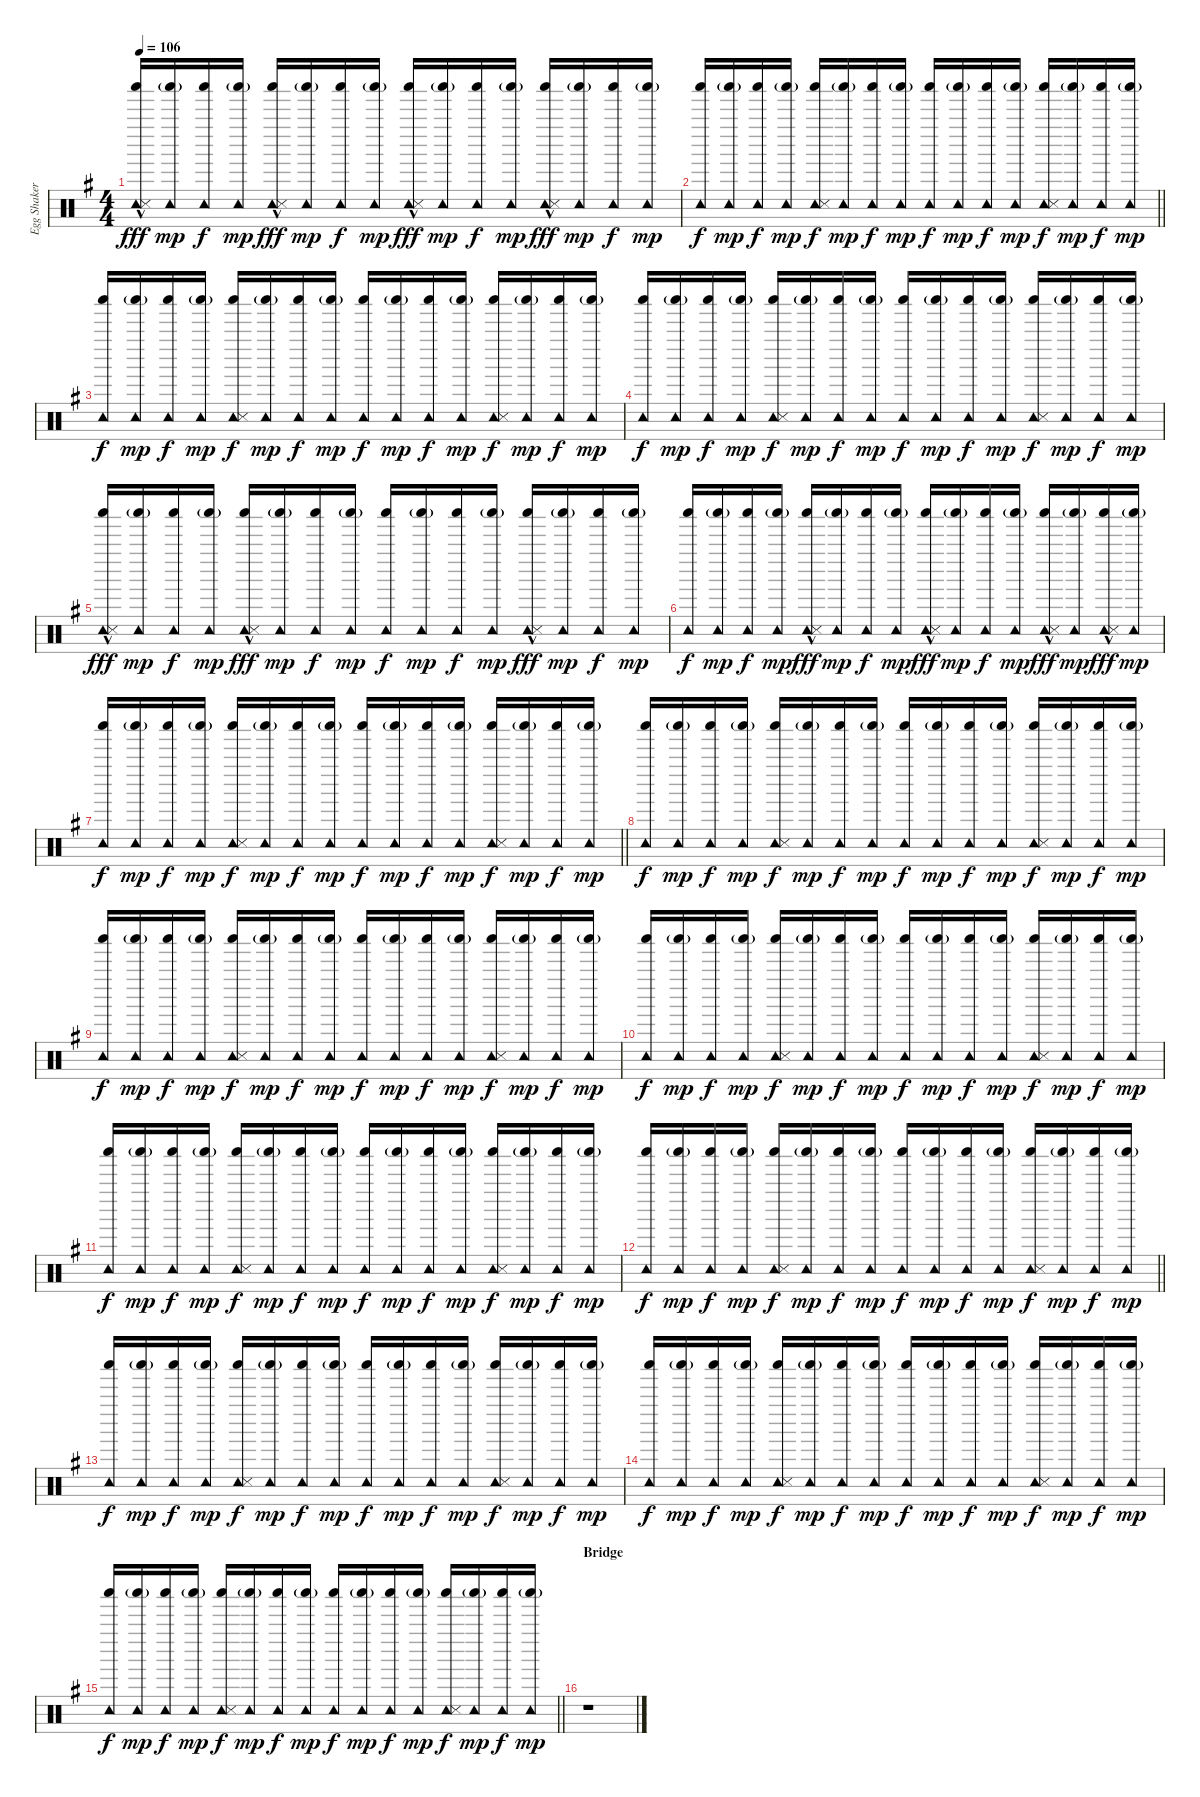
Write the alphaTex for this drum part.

\track ("Egg Shaker and Tambourine" "Egg Shaker") {instrument percussion}
\staff {score}
\articulation defaults
\ts (4 4)
\tempo 106
\clef neutral
\ks eminor
("Tambourine (hit)" "Shaker (hit)" "Snare (side stick) 3"{hac}).16{dy fff beam Up} ("Tambourine (hit)" "Shaker (hit)"{g}).16{dy mp beam Up} ("Tambourine (hit)" "Shaker (hit)").16{dy f beam Up} ("Tambourine (hit)" "Shaker (hit)"{g}).16{dy mp beam Up} ("Tambourine (hit)" "Shaker (hit)" "Snare (side stick) 3"{hac}).16{dy fff beam Up} ("Tambourine (hit)" "Shaker (hit)"{g}).16{dy mp beam Up} ("Tambourine (hit)" "Shaker (hit)").16{dy f beam Up} ("Tambourine (hit)" "Shaker (hit)"{g}).16{dy mp beam Up} ("Tambourine (hit)" "Shaker (hit)" "Snare (side stick) 3"{hac}).16{dy fff beam Up} ("Tambourine (hit)" "Shaker (hit)"{g}).16{dy mp beam Up} ("Tambourine (hit)" "Shaker (hit)").16{dy f beam Up} ("Tambourine (hit)" "Shaker (hit)"{g}).16{dy mp beam Up} ("Tambourine (hit)" "Shaker (hit)" "Snare (side stick) 3"{hac}).16{dy fff beam Up} ("Tambourine (hit)" "Shaker (hit)"{g}).16{dy mp beam Up} ("Tambourine (hit)" "Shaker (hit)").16{dy f beam Up} ("Tambourine (hit)" "Shaker (hit)"{g}).16{dy mp beam Up} |
\barLineRight lightlight
("Tambourine (hit)" "Shaker (hit)").16{dy f beam Up} ("Tambourine (hit)" "Shaker (hit)"{g}).16{dy mp beam Up} ("Tambourine (hit)" "Shaker (hit)").16{dy f beam Up} ("Tambourine (hit)" "Shaker (hit)"{g}).16{dy mp beam Up} ("Tambourine (hit)" "Shaker (hit)" "Snare (side stick) 3").16{dy f beam Up} ("Tambourine (hit)" "Shaker (hit)"{g}).16{dy mp beam Up} ("Tambourine (hit)" "Shaker (hit)").16{dy f beam Up} ("Tambourine (hit)" "Shaker (hit)"{g}).16{dy mp beam Up} ("Tambourine (hit)" "Shaker (hit)").16{dy f beam Up} ("Tambourine (hit)" "Shaker (hit)"{g}).16{dy mp beam Up} ("Tambourine (hit)" "Shaker (hit)").16{dy f beam Up} ("Tambourine (hit)" "Shaker (hit)"{g}).16{dy mp beam Up} ("Tambourine (hit)" "Shaker (hit)" "Snare (side stick) 3").16{dy f beam Up} ("Tambourine (hit)" "Shaker (hit)"{g}).16{dy mp beam Up} ("Tambourine (hit)" "Shaker (hit)").16{dy f beam Up} ("Tambourine (hit)" "Shaker (hit)"{g}).16{dy mp beam Up} |
("Tambourine (hit)" "Shaker (hit)").16{dy f beam Up} ("Tambourine (hit)" "Shaker (hit)"{g}).16{dy mp beam Up} ("Tambourine (hit)" "Shaker (hit)").16{dy f beam Up} ("Tambourine (hit)" "Shaker (hit)"{g}).16{dy mp beam Up} ("Tambourine (hit)" "Shaker (hit)" "Snare (side stick) 3").16{dy f beam Up} ("Tambourine (hit)" "Shaker (hit)"{g}).16{dy mp beam Up} ("Tambourine (hit)" "Shaker (hit)").16{dy f beam Up} ("Tambourine (hit)" "Shaker (hit)"{g}).16{dy mp beam Up} ("Tambourine (hit)" "Shaker (hit)").16{dy f beam Up} ("Tambourine (hit)" "Shaker (hit)"{g}).16{dy mp beam Up} ("Tambourine (hit)" "Shaker (hit)").16{dy f beam Up} ("Tambourine (hit)" "Shaker (hit)"{g}).16{dy mp beam Up} ("Tambourine (hit)" "Shaker (hit)" "Snare (side stick) 3").16{dy f beam Up} ("Tambourine (hit)" "Shaker (hit)"{g}).16{dy mp beam Up} ("Tambourine (hit)" "Shaker (hit)").16{dy f beam Up} ("Tambourine (hit)" "Shaker (hit)"{g}).16{dy mp beam Up} |
("Tambourine (hit)" "Shaker (hit)").16{dy f beam Up} ("Tambourine (hit)" "Shaker (hit)"{g}).16{dy mp beam Up} ("Tambourine (hit)" "Shaker (hit)").16{dy f beam Up} ("Tambourine (hit)" "Shaker (hit)"{g}).16{dy mp beam Up} ("Tambourine (hit)" "Shaker (hit)" "Snare (side stick) 3").16{dy f beam Up} ("Tambourine (hit)" "Shaker (hit)"{g}).16{dy mp beam Up} ("Tambourine (hit)" "Shaker (hit)").16{dy f beam Up} ("Tambourine (hit)" "Shaker (hit)"{g}).16{dy mp beam Up} ("Tambourine (hit)" "Shaker (hit)").16{dy f beam Up} ("Tambourine (hit)" "Shaker (hit)"{g}).16{dy mp beam Up} ("Tambourine (hit)" "Shaker (hit)").16{dy f beam Up} ("Tambourine (hit)" "Shaker (hit)"{g}).16{dy mp beam Up} ("Tambourine (hit)" "Shaker (hit)" "Snare (side stick) 3").16{dy f beam Up} ("Tambourine (hit)" "Shaker (hit)"{g}).16{dy mp beam Up} ("Tambourine (hit)" "Shaker (hit)").16{dy f beam Up} ("Tambourine (hit)" "Shaker (hit)"{g}).16{dy mp beam Up} |
("Tambourine (hit)" "Shaker (hit)" "Snare (side stick) 3"{hac}).16{dy fff beam Up} ("Tambourine (hit)" "Shaker (hit)"{g}).16{dy mp beam Up} ("Tambourine (hit)" "Shaker (hit)").16{dy f beam Up} ("Tambourine (hit)" "Shaker (hit)"{g}).16{dy mp beam Up} ("Tambourine (hit)" "Shaker (hit)" "Snare (side stick) 3"{hac}).16{dy fff beam Up} ("Tambourine (hit)" "Shaker (hit)"{g}).16{dy mp beam Up} ("Tambourine (hit)" "Shaker (hit)").16{dy f beam Up} ("Tambourine (hit)" "Shaker (hit)"{g}).16{dy mp beam Up} ("Tambourine (hit)" "Shaker (hit)").16{dy f beam Up} ("Tambourine (hit)" "Shaker (hit)"{g}).16{dy mp beam Up} ("Tambourine (hit)" "Shaker (hit)").16{dy f beam Up} ("Tambourine (hit)" "Shaker (hit)"{g}).16{dy mp beam Up} ("Tambourine (hit)" "Shaker (hit)" "Snare (side stick) 3"{hac}).16{dy fff beam Up} ("Tambourine (hit)" "Shaker (hit)"{g}).16{dy mp beam Up} ("Tambourine (hit)" "Shaker (hit)").16{dy f beam Up} ("Tambourine (hit)" "Shaker (hit)"{g}).16{dy mp beam Up} |
("Tambourine (hit)" "Shaker (hit)").16{dy f beam Up} ("Tambourine (hit)" "Shaker (hit)"{g}).16{dy mp beam Up} ("Tambourine (hit)" "Shaker (hit)").16{dy f beam Up} ("Tambourine (hit)" "Shaker (hit)"{g}).16{dy mp beam Up} ("Tambourine (hit)" "Shaker (hit)" "Snare (side stick) 3"{hac}).16{dy fff beam Up} ("Tambourine (hit)" "Shaker (hit)"{g}).16{dy mp beam Up} ("Tambourine (hit)" "Shaker (hit)").16{dy f beam Up} ("Tambourine (hit)" "Shaker (hit)"{g}).16{dy mp beam Up} ("Tambourine (hit)" "Shaker (hit)" "Snare (side stick) 3"{hac}).16{dy fff beam Up} ("Tambourine (hit)" "Shaker (hit)"{g}).16{dy mp beam Up} ("Tambourine (hit)" "Shaker (hit)").16{dy f beam Up} ("Tambourine (hit)" "Shaker (hit)"{g}).16{dy mp beam Up} ("Tambourine (hit)" "Shaker (hit)" "Snare (side stick) 3"{hac}).16{dy fff beam Up} ("Tambourine (hit)" "Shaker (hit)"{g}).16{dy mp beam Up} ("Tambourine (hit)" "Shaker (hit)" "Snare (side stick) 3"{hac}).16{dy fff beam Up} ("Tambourine (hit)" "Shaker (hit)"{g}).16{dy mp beam Up} |
\barLineRight lightlight
("Tambourine (hit)" "Shaker (hit)").16{dy f beam Up} ("Tambourine (hit)" "Shaker (hit)"{g}).16{dy mp beam Up} ("Tambourine (hit)" "Shaker (hit)").16{dy f beam Up} ("Tambourine (hit)" "Shaker (hit)"{g}).16{dy mp beam Up} ("Tambourine (hit)" "Shaker (hit)" "Snare (side stick) 3").16{dy f beam Up} ("Tambourine (hit)" "Shaker (hit)"{g}).16{dy mp beam Up} ("Tambourine (hit)" "Shaker (hit)").16{dy f beam Up} ("Tambourine (hit)" "Shaker (hit)"{g}).16{dy mp beam Up} ("Tambourine (hit)" "Shaker (hit)").16{dy f beam Up} ("Tambourine (hit)" "Shaker (hit)"{g}).16{dy mp beam Up} ("Tambourine (hit)" "Shaker (hit)").16{dy f beam Up} ("Tambourine (hit)" "Shaker (hit)"{g}).16{dy mp beam Up} ("Tambourine (hit)" "Shaker (hit)" "Snare (side stick) 3").16{dy f beam Up} ("Tambourine (hit)" "Shaker (hit)"{g}).16{dy mp beam Up} ("Tambourine (hit)" "Shaker (hit)").16{dy f beam Up} ("Tambourine (hit)" "Shaker (hit)"{g}).16{dy mp beam Up} |
("Tambourine (hit)" "Shaker (hit)").16{dy f beam Up} ("Tambourine (hit)" "Shaker (hit)"{g}).16{dy mp beam Up} ("Tambourine (hit)" "Shaker (hit)").16{dy f beam Up} ("Tambourine (hit)" "Shaker (hit)"{g}).16{dy mp beam Up} ("Tambourine (hit)" "Shaker (hit)" "Snare (side stick) 3").16{dy f beam Up} ("Tambourine (hit)" "Shaker (hit)"{g}).16{dy mp beam Up} ("Tambourine (hit)" "Shaker (hit)").16{dy f beam Up} ("Tambourine (hit)" "Shaker (hit)"{g}).16{dy mp beam Up} ("Tambourine (hit)" "Shaker (hit)").16{dy f beam Up} ("Tambourine (hit)" "Shaker (hit)"{g}).16{dy mp beam Up} ("Tambourine (hit)" "Shaker (hit)").16{dy f beam Up} ("Tambourine (hit)" "Shaker (hit)"{g}).16{dy mp beam Up} ("Tambourine (hit)" "Shaker (hit)" "Snare (side stick) 3").16{dy f beam Up} ("Tambourine (hit)" "Shaker (hit)"{g}).16{dy mp beam Up} ("Tambourine (hit)" "Shaker (hit)").16{dy f beam Up} ("Tambourine (hit)" "Shaker (hit)"{g}).16{dy mp beam Up} |
("Tambourine (hit)" "Shaker (hit)").16{dy f beam Up} ("Tambourine (hit)" "Shaker (hit)"{g}).16{dy mp beam Up} ("Tambourine (hit)" "Shaker (hit)").16{dy f beam Up} ("Tambourine (hit)" "Shaker (hit)"{g}).16{dy mp beam Up} ("Tambourine (hit)" "Shaker (hit)" "Snare (side stick) 3").16{dy f beam Up} ("Tambourine (hit)" "Shaker (hit)"{g}).16{dy mp beam Up} ("Tambourine (hit)" "Shaker (hit)").16{dy f beam Up} ("Tambourine (hit)" "Shaker (hit)"{g}).16{dy mp beam Up} ("Tambourine (hit)" "Shaker (hit)").16{dy f beam Up} ("Tambourine (hit)" "Shaker (hit)"{g}).16{dy mp beam Up} ("Tambourine (hit)" "Shaker (hit)").16{dy f beam Up} ("Tambourine (hit)" "Shaker (hit)"{g}).16{dy mp beam Up} ("Tambourine (hit)" "Shaker (hit)" "Snare (side stick) 3").16{dy f beam Up} ("Tambourine (hit)" "Shaker (hit)"{g}).16{dy mp beam Up} ("Tambourine (hit)" "Shaker (hit)").16{dy f beam Up} ("Tambourine (hit)" "Shaker (hit)"{g}).16{dy mp beam Up} |
("Tambourine (hit)" "Shaker (hit)").16{dy f beam Up} ("Tambourine (hit)" "Shaker (hit)"{g}).16{dy mp beam Up} ("Tambourine (hit)" "Shaker (hit)").16{dy f beam Up} ("Tambourine (hit)" "Shaker (hit)"{g}).16{dy mp beam Up} ("Tambourine (hit)" "Shaker (hit)" "Snare (side stick) 3").16{dy f beam Up} ("Tambourine (hit)" "Shaker (hit)"{g}).16{dy mp beam Up} ("Tambourine (hit)" "Shaker (hit)").16{dy f beam Up} ("Tambourine (hit)" "Shaker (hit)"{g}).16{dy mp beam Up} ("Tambourine (hit)" "Shaker (hit)").16{dy f beam Up} ("Tambourine (hit)" "Shaker (hit)"{g}).16{dy mp beam Up} ("Tambourine (hit)" "Shaker (hit)").16{dy f beam Up} ("Tambourine (hit)" "Shaker (hit)"{g}).16{dy mp beam Up} ("Tambourine (hit)" "Shaker (hit)" "Snare (side stick) 3").16{dy f beam Up} ("Tambourine (hit)" "Shaker (hit)"{g}).16{dy mp beam Up} ("Tambourine (hit)" "Shaker (hit)").16{dy f beam Up} ("Tambourine (hit)" "Shaker (hit)"{g}).16{dy mp beam Up} |
("Tambourine (hit)" "Shaker (hit)").16{dy f beam Up} ("Tambourine (hit)" "Shaker (hit)"{g}).16{dy mp beam Up} ("Tambourine (hit)" "Shaker (hit)").16{dy f beam Up} ("Tambourine (hit)" "Shaker (hit)"{g}).16{dy mp beam Up} ("Tambourine (hit)" "Shaker (hit)" "Snare (side stick) 3").16{dy f beam Up} ("Tambourine (hit)" "Shaker (hit)"{g}).16{dy mp beam Up} ("Tambourine (hit)" "Shaker (hit)").16{dy f beam Up} ("Tambourine (hit)" "Shaker (hit)"{g}).16{dy mp beam Up} ("Tambourine (hit)" "Shaker (hit)").16{dy f beam Up} ("Tambourine (hit)" "Shaker (hit)"{g}).16{dy mp beam Up} ("Tambourine (hit)" "Shaker (hit)").16{dy f beam Up} ("Tambourine (hit)" "Shaker (hit)"{g}).16{dy mp beam Up} ("Tambourine (hit)" "Shaker (hit)" "Snare (side stick) 3").16{dy f beam Up} ("Tambourine (hit)" "Shaker (hit)"{g}).16{dy mp beam Up} ("Tambourine (hit)" "Shaker (hit)").16{dy f beam Up} ("Tambourine (hit)" "Shaker (hit)"{g}).16{dy mp beam Up} |
\barLineRight lightlight
("Tambourine (hit)" "Shaker (hit)").16{dy f beam Up} ("Tambourine (hit)" "Shaker (hit)"{g}).16{dy mp beam Up} ("Tambourine (hit)" "Shaker (hit)").16{dy f beam Up} ("Tambourine (hit)" "Shaker (hit)"{g}).16{dy mp beam Up} ("Tambourine (hit)" "Shaker (hit)" "Snare (side stick) 3").16{dy f beam Up} ("Tambourine (hit)" "Shaker (hit)"{g}).16{dy mp beam Up} ("Tambourine (hit)" "Shaker (hit)").16{dy f beam Up} ("Tambourine (hit)" "Shaker (hit)"{g}).16{dy mp beam Up} ("Tambourine (hit)" "Shaker (hit)").16{dy f beam Up} ("Tambourine (hit)" "Shaker (hit)"{g}).16{dy mp beam Up} ("Tambourine (hit)" "Shaker (hit)").16{dy f beam Up} ("Tambourine (hit)" "Shaker (hit)"{g}).16{dy mp beam Up} ("Tambourine (hit)" "Shaker (hit)" "Snare (side stick) 3").16{dy f beam Up} ("Tambourine (hit)" "Shaker (hit)"{g}).16{dy mp beam Up} ("Tambourine (hit)" "Shaker (hit)").16{dy f beam Up} ("Tambourine (hit)" "Shaker (hit)"{g}).16{dy mp beam Up} |
("Tambourine (hit)" "Shaker (hit)").16{dy f beam Up} ("Tambourine (hit)" "Shaker (hit)"{g}).16{dy mp beam Up} ("Tambourine (hit)" "Shaker (hit)").16{dy f beam Up} ("Tambourine (hit)" "Shaker (hit)"{g}).16{dy mp beam Up} ("Tambourine (hit)" "Shaker (hit)" "Snare (side stick) 3").16{dy f beam Up} ("Tambourine (hit)" "Shaker (hit)"{g}).16{dy mp beam Up} ("Tambourine (hit)" "Shaker (hit)").16{dy f beam Up} ("Tambourine (hit)" "Shaker (hit)"{g}).16{dy mp beam Up} ("Tambourine (hit)" "Shaker (hit)").16{dy f beam Up} ("Tambourine (hit)" "Shaker (hit)"{g}).16{dy mp beam Up} ("Tambourine (hit)" "Shaker (hit)").16{dy f beam Up} ("Tambourine (hit)" "Shaker (hit)"{g}).16{dy mp beam Up} ("Tambourine (hit)" "Shaker (hit)" "Snare (side stick) 3").16{dy f beam Up} ("Tambourine (hit)" "Shaker (hit)"{g}).16{dy mp beam Up} ("Tambourine (hit)" "Shaker (hit)").16{dy f beam Up} ("Tambourine (hit)" "Shaker (hit)"{g}).16{dy mp beam Up} |
("Tambourine (hit)" "Shaker (hit)").16{dy f beam Up} ("Tambourine (hit)" "Shaker (hit)"{g}).16{dy mp beam Up} ("Tambourine (hit)" "Shaker (hit)").16{dy f beam Up} ("Tambourine (hit)" "Shaker (hit)"{g}).16{dy mp beam Up} ("Tambourine (hit)" "Shaker (hit)" "Snare (side stick) 3").16{dy f beam Up} ("Tambourine (hit)" "Shaker (hit)"{g}).16{dy mp beam Up} ("Tambourine (hit)" "Shaker (hit)").16{dy f beam Up} ("Tambourine (hit)" "Shaker (hit)"{g}).16{dy mp beam Up} ("Tambourine (hit)" "Shaker (hit)").16{dy f beam Up} ("Tambourine (hit)" "Shaker (hit)"{g}).16{dy mp beam Up} ("Tambourine (hit)" "Shaker (hit)").16{dy f beam Up} ("Tambourine (hit)" "Shaker (hit)"{g}).16{dy mp beam Up} ("Tambourine (hit)" "Shaker (hit)" "Snare (side stick) 3").16{dy f beam Up} ("Tambourine (hit)" "Shaker (hit)"{g}).16{dy mp beam Up} ("Tambourine (hit)" "Shaker (hit)").16{dy f beam Up} ("Tambourine (hit)" "Shaker (hit)"{g}).16{dy mp beam Up} |
\barLineRight lightlight
("Tambourine (hit)" "Shaker (hit)").16{dy f beam Up} ("Tambourine (hit)" "Shaker (hit)"{g}).16{dy mp beam Up} ("Tambourine (hit)" "Shaker (hit)").16{dy f beam Up} ("Tambourine (hit)" "Shaker (hit)"{g}).16{dy mp beam Up} ("Tambourine (hit)" "Shaker (hit)" "Snare (side stick) 3").16{dy f beam Up} ("Tambourine (hit)" "Shaker (hit)"{g}).16{dy mp beam Up} ("Tambourine (hit)" "Shaker (hit)").16{dy f beam Up} ("Tambourine (hit)" "Shaker (hit)"{g}).16{dy mp beam Up} ("Tambourine (hit)" "Shaker (hit)").16{dy f beam Up} ("Tambourine (hit)" "Shaker (hit)"{g}).16{dy mp beam Up} ("Tambourine (hit)" "Shaker (hit)").16{dy f beam Up} ("Tambourine (hit)" "Shaker (hit)"{g}).16{dy mp beam Up} ("Tambourine (hit)" "Shaker (hit)" "Snare (side stick) 3").16{dy f beam Up} ("Tambourine (hit)" "Shaker (hit)"{g}).16{dy mp beam Up} ("Tambourine (hit)" "Shaker (hit)").16{dy f beam Up} ("Tambourine (hit)" "Shaker (hit)"{g}).16{dy mp beam Up} |
\section ("" "Bridge")
r.1
